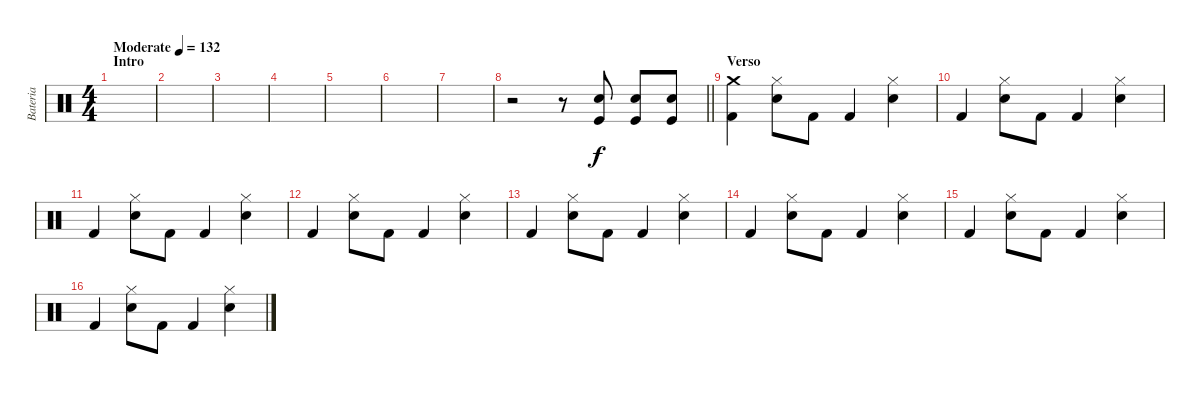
\track ("Bateria" "Bateria") {instrument percussion}
\staff {score}
\articulation defaults
\ts (4 4)
\section ("" "Intro")
\tempo (132 "Moderate")
\clef neutral
\ks c
|
|
|
|
|
|
|
\barLineRight lightlight
r.2 r.8 ("Electric Snare (hit)" "Kick (hit)").8 ("Electric Snare (hit)" "Kick (hit)").8 ("Electric Snare (hit)" "Kick (hit)").8 |
\section ("" "Verso")
("Kick (hit) 2" "Crash medium (hit)").4 ("Electric Snare (hit)" "Hi-Hat (closed)").8 "Kick (hit) 2".8 "Kick (hit) 2".4 ("Electric Snare (hit)" "Hi-Hat (closed)").4 |
"Kick (hit) 2".4 ("Electric Snare (hit)" "Hi-Hat (closed)").8 "Kick (hit) 2".8 "Kick (hit) 2".4 ("Electric Snare (hit)" "Hi-Hat (closed)").4 |
"Kick (hit) 2".4 ("Electric Snare (hit)" "Hi-Hat (closed)").8 "Kick (hit) 2".8 "Kick (hit) 2".4 ("Electric Snare (hit)" "Hi-Hat (closed)").4 |
"Kick (hit) 2".4 ("Electric Snare (hit)" "Hi-Hat (closed)").8 "Kick (hit) 2".8 "Kick (hit) 2".4 ("Electric Snare (hit)" "Hi-Hat (closed)").4 |
"Kick (hit) 2".4 ("Electric Snare (hit)" "Hi-Hat (closed)").8 "Kick (hit) 2".8 "Kick (hit) 2".4 ("Electric Snare (hit)" "Hi-Hat (closed)").4 |
"Kick (hit) 2".4 ("Electric Snare (hit)" "Hi-Hat (closed)").8 "Kick (hit) 2".8 "Kick (hit) 2".4 ("Electric Snare (hit)" "Hi-Hat (closed)").4 |
"Kick (hit) 2".4 ("Electric Snare (hit)" "Hi-Hat (closed)").8 "Kick (hit) 2".8 "Kick (hit) 2".4 ("Electric Snare (hit)" "Hi-Hat (closed)").4 |
"Kick (hit) 2".4 ("Electric Snare (hit)" "Hi-Hat (closed)").8 "Kick (hit) 2".8 "Kick (hit) 2".4 ("Electric Snare (hit)" "Hi-Hat (closed)").4
